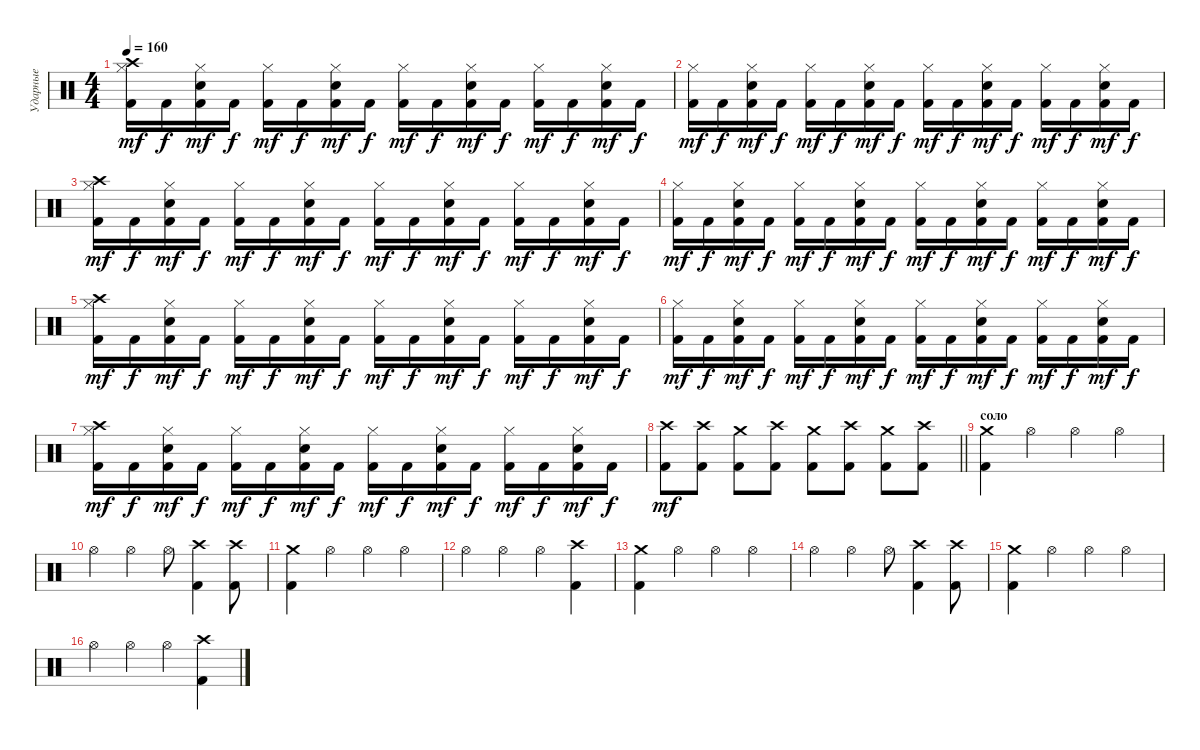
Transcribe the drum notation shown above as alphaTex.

\track ("Ударные" "Ударные") {instrument percussion}
\staff {score}
\articulation defaults
\ts (4 4)
\tempo 160
\clef neutral
\ks c
("Kick (hit) 2" "Hi-Hat (closed)" "Crash high (hit)").16{dy mf} "Kick (hit) 2".16{dy f} ("Kick (hit) 2" "Snare (hit) 2" "Hi-Hat (closed)").16{dy mf} "Kick (hit) 2".16{dy f} ("Kick (hit) 2" "Hi-Hat (closed)").16{dy mf} "Kick (hit) 2".16{dy f} ("Kick (hit) 2" "Snare (hit) 2" "Hi-Hat (closed)").16{dy mf} "Kick (hit) 2".16{dy f} ("Kick (hit) 2" "Hi-Hat (closed)").16{dy mf} "Kick (hit) 2".16{dy f} ("Kick (hit) 2" "Snare (hit) 2" "Hi-Hat (closed)").16{dy mf} "Kick (hit) 2".16{dy f} ("Kick (hit) 2" "Hi-Hat (closed)").16{dy mf} "Kick (hit) 2".16{dy f} ("Kick (hit) 2" "Snare (hit) 2" "Hi-Hat (closed)").16{dy mf} "Kick (hit) 2".16{dy f} |
("Kick (hit) 2" "Hi-Hat (closed)").16{dy mf} "Kick (hit) 2".16{dy f} ("Kick (hit) 2" "Snare (hit) 2" "Hi-Hat (closed)").16{dy mf} "Kick (hit) 2".16{dy f} ("Kick (hit) 2" "Hi-Hat (closed)").16{dy mf} "Kick (hit) 2".16{dy f} ("Kick (hit) 2" "Snare (hit) 2" "Hi-Hat (closed)").16{dy mf} "Kick (hit) 2".16{dy f} ("Kick (hit) 2" "Hi-Hat (closed)").16{dy mf} "Kick (hit) 2".16{dy f} ("Kick (hit) 2" "Snare (hit) 2" "Hi-Hat (closed)").16{dy mf} "Kick (hit) 2".16{dy f} ("Kick (hit) 2" "Hi-Hat (closed)").16{dy mf} "Kick (hit) 2".16{dy f} ("Kick (hit) 2" "Snare (hit) 2" "Hi-Hat (closed)").16{dy mf} "Kick (hit) 2".16{dy f} |
("Kick (hit) 2" "Hi-Hat (closed)" "Crash high (hit)").16{dy mf} "Kick (hit) 2".16{dy f} ("Kick (hit) 2" "Snare (hit) 2" "Hi-Hat (closed)").16{dy mf} "Kick (hit) 2".16{dy f} ("Kick (hit) 2" "Hi-Hat (closed)").16{dy mf} "Kick (hit) 2".16{dy f} ("Kick (hit) 2" "Snare (hit) 2" "Hi-Hat (closed)").16{dy mf} "Kick (hit) 2".16{dy f} ("Kick (hit) 2" "Hi-Hat (closed)").16{dy mf} "Kick (hit) 2".16{dy f} ("Kick (hit) 2" "Snare (hit) 2" "Hi-Hat (closed)").16{dy mf} "Kick (hit) 2".16{dy f} ("Kick (hit) 2" "Hi-Hat (closed)").16{dy mf} "Kick (hit) 2".16{dy f} ("Kick (hit) 2" "Snare (hit) 2" "Hi-Hat (closed)").16{dy mf} "Kick (hit) 2".16{dy f} |
("Kick (hit) 2" "Hi-Hat (closed)").16{dy mf} "Kick (hit) 2".16{dy f} ("Kick (hit) 2" "Snare (hit) 2" "Hi-Hat (closed)").16{dy mf} "Kick (hit) 2".16{dy f} ("Kick (hit) 2" "Hi-Hat (closed)").16{dy mf} "Kick (hit) 2".16{dy f} ("Kick (hit) 2" "Snare (hit) 2" "Hi-Hat (closed)").16{dy mf} "Kick (hit) 2".16{dy f} ("Kick (hit) 2" "Hi-Hat (closed)").16{dy mf} "Kick (hit) 2".16{dy f} ("Kick (hit) 2" "Snare (hit) 2" "Hi-Hat (closed)").16{dy mf} "Kick (hit) 2".16{dy f} ("Kick (hit) 2" "Hi-Hat (closed)").16{dy mf} "Kick (hit) 2".16{dy f} ("Kick (hit) 2" "Snare (hit) 2" "Hi-Hat (closed)").16{dy mf} "Kick (hit) 2".16{dy f} |
("Kick (hit) 2" "Hi-Hat (closed)" "Crash high (hit)").16{dy mf} "Kick (hit) 2".16{dy f} ("Kick (hit) 2" "Snare (hit) 2" "Hi-Hat (closed)").16{dy mf} "Kick (hit) 2".16{dy f} ("Kick (hit) 2" "Hi-Hat (closed)").16{dy mf} "Kick (hit) 2".16{dy f} ("Kick (hit) 2" "Snare (hit) 2" "Hi-Hat (closed)").16{dy mf} "Kick (hit) 2".16{dy f} ("Kick (hit) 2" "Hi-Hat (closed)").16{dy mf} "Kick (hit) 2".16{dy f} ("Kick (hit) 2" "Snare (hit) 2" "Hi-Hat (closed)").16{dy mf} "Kick (hit) 2".16{dy f} ("Kick (hit) 2" "Hi-Hat (closed)").16{dy mf} "Kick (hit) 2".16{dy f} ("Kick (hit) 2" "Snare (hit) 2" "Hi-Hat (closed)").16{dy mf} "Kick (hit) 2".16{dy f} |
("Kick (hit) 2" "Hi-Hat (closed)").16{dy mf} "Kick (hit) 2".16{dy f} ("Kick (hit) 2" "Snare (hit) 2" "Hi-Hat (closed)").16{dy mf} "Kick (hit) 2".16{dy f} ("Kick (hit) 2" "Hi-Hat (closed)").16{dy mf} "Kick (hit) 2".16{dy f} ("Kick (hit) 2" "Snare (hit) 2" "Hi-Hat (closed)").16{dy mf} "Kick (hit) 2".16{dy f} ("Kick (hit) 2" "Hi-Hat (closed)").16{dy mf} "Kick (hit) 2".16{dy f} ("Kick (hit) 2" "Snare (hit) 2" "Hi-Hat (closed)").16{dy mf} "Kick (hit) 2".16{dy f} ("Kick (hit) 2" "Hi-Hat (closed)").16{dy mf} "Kick (hit) 2".16{dy f} ("Kick (hit) 2" "Snare (hit) 2" "Hi-Hat (closed)").16{dy mf} "Kick (hit) 2".16{dy f} |
("Kick (hit) 2" "Hi-Hat (closed)" "Crash high (hit)").16{dy mf} "Kick (hit) 2".16{dy f} ("Kick (hit) 2" "Snare (hit) 2" "Hi-Hat (closed)").16{dy mf} "Kick (hit) 2".16{dy f} ("Kick (hit) 2" "Hi-Hat (closed)").16{dy mf} "Kick (hit) 2".16{dy f} ("Kick (hit) 2" "Snare (hit) 2" "Hi-Hat (closed)").16{dy mf} "Kick (hit) 2".16{dy f} ("Kick (hit) 2" "Hi-Hat (closed)").16{dy mf} "Kick (hit) 2".16{dy f} ("Kick (hit) 2" "Snare (hit) 2" "Hi-Hat (closed)").16{dy mf} "Kick (hit) 2".16{dy f} ("Kick (hit) 2" "Hi-Hat (closed)").16{dy mf} "Kick (hit) 2".16{dy f} ("Kick (hit) 2" "Snare (hit) 2" "Hi-Hat (closed)").16{dy mf} "Kick (hit) 2".16{dy f} |
\barLineRight lightlight
("Kick (hit) 2" "Crash high (hit)").8{dy mf} ("Kick (hit) 2" "Crash high (hit)").8 ("Kick (hit) 2" "Crash medium (hit)").8 ("Kick (hit) 2" "Crash high (hit)").8 ("Kick (hit) 2" "Crash medium (hit)").8 ("Kick (hit) 2" "Crash high (hit)").8 ("Kick (hit) 2" "Crash medium (hit)").8 ("Kick (hit) 2" "Crash high (hit)").8 |
\section ("" "соло")
("Kick (hit) 2" "Crash medium (hit)").4 "Hi-Hat (open)".4 "Hi-Hat (open)".4 "Hi-Hat (open)".4 |
"Hi-Hat (open)".4 "Hi-Hat (open)".4 "Hi-Hat (open)".8 ("Kick (hit) 2" "Crash high (hit)").4 ("Kick (hit) 2" "Crash high (hit)").8 |
("Kick (hit) 2" "Crash medium (hit)").4 "Hi-Hat (open)".4 "Hi-Hat (open)".4 "Hi-Hat (open)".4 |
"Hi-Hat (open)".4 "Hi-Hat (open)".4 "Hi-Hat (open)".4 ("Kick (hit) 2" "Crash high (hit)").4 |
("Kick (hit) 2" "Crash medium (hit)").4 "Hi-Hat (open)".4 "Hi-Hat (open)".4 "Hi-Hat (open)".4 |
"Hi-Hat (open)".4 "Hi-Hat (open)".4 "Hi-Hat (open)".8 ("Kick (hit) 2" "Crash high (hit)").4 ("Kick (hit) 2" "Crash high (hit)").8 |
("Kick (hit) 2" "Crash medium (hit)").4 "Hi-Hat (open)".4 "Hi-Hat (open)".4 "Hi-Hat (open)".4 |
"Hi-Hat (open)".4 "Hi-Hat (open)".4 "Hi-Hat (open)".4 ("Kick (hit) 2" "Crash high (hit)").4
